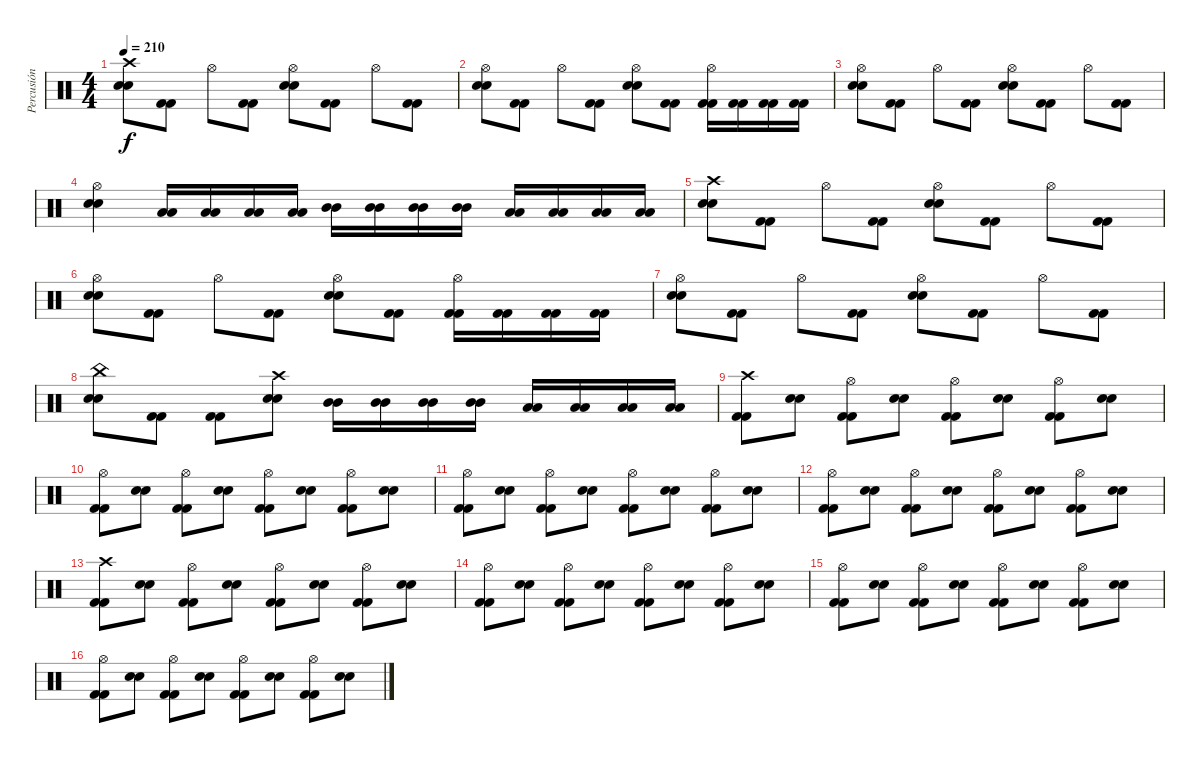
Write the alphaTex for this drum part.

\track ("Percusión" "Percusión") {instrument percussion}
\staff {score}
\articulation defaults
\ts (4 4)
\tempo 210
\clef neutral
\ks c
("Electric Snare (hit)" "Electric Snare (hit)" "Crash high (hit)").8{dy f} ("Kick (hit) 2" "Kick (hit) 2").8 "Hi-Hat (open)".8 ("Kick (hit) 2" "Kick (hit) 2").8 ("Electric Snare (hit)" "Electric Snare (hit)" "Hi-Hat (open)").8 ("Kick (hit) 2" "Kick (hit) 2").8 "Hi-Hat (open)".8 ("Kick (hit) 2" "Kick (hit) 2").8 |
("Electric Snare (hit)" "Electric Snare (hit)" "Hi-Hat (open)").8 ("Kick (hit) 2" "Kick (hit) 2").8 "Hi-Hat (open)".8 ("Kick (hit) 2" "Kick (hit) 2").8 ("Electric Snare (hit)" "Electric Snare (hit)" "Hi-Hat (open)").8 ("Kick (hit) 2" "Kick (hit) 2").8 ("Kick (hit) 2" "Kick (hit) 2" "Hi-Hat (open)").16 ("Kick (hit) 2" "Kick (hit) 2").16 ("Kick (hit) 2" "Kick (hit) 2").16 ("Kick (hit) 2" "Kick (hit) 2").16 |
("Electric Snare (hit)" "Electric Snare (hit)" "Hi-Hat (open)").8 ("Kick (hit) 2" "Kick (hit) 2").8 "Hi-Hat (open)".8 ("Kick (hit) 2" "Kick (hit) 2").8 ("Electric Snare (hit)" "Electric Snare (hit)" "Hi-Hat (open)").8 ("Kick (hit) 2" "Kick (hit) 2").8 "Hi-Hat (open)".8 ("Kick (hit) 2" "Kick (hit) 2").8 |
("Electric Snare (hit)" "Electric Snare (hit)" "Hi-Hat (open)").4 ("Low Tom (hit)" "Low Tom (hit)").16 ("Low Tom (hit)" "Low Tom (hit)").16 ("Low Tom (hit)" "Low Tom (hit)").16 ("Low Tom (hit)" "Low Tom (hit)").16 ("Mid Tom (hit)" "Mid Tom (hit)").16 ("Mid Tom (hit)" "Mid Tom (hit)").16 ("Mid Tom (hit)" "Mid Tom (hit)").16 ("Mid Tom (hit)" "Mid Tom (hit)").16 ("Low Floor Tom (hit)" "Low Floor Tom (hit)").16 ("Low Floor Tom (hit)" "Low Floor Tom (hit)").16 ("Low Floor Tom (hit)" "Low Floor Tom (hit)").16 ("Low Floor Tom (hit)" "Low Floor Tom (hit)").16 |
("Electric Snare (hit)" "Electric Snare (hit)" "Crash high (hit)").8 ("Kick (hit) 2" "Kick (hit) 2").8 "Hi-Hat (open)".8 ("Kick (hit) 2" "Kick (hit) 2").8 ("Electric Snare (hit)" "Electric Snare (hit)" "Hi-Hat (open)").8 ("Kick (hit) 2" "Kick (hit) 2").8 "Hi-Hat (open)".8 ("Kick (hit) 2" "Kick (hit) 2").8 |
("Electric Snare (hit)" "Electric Snare (hit)" "Hi-Hat (open)").8 ("Kick (hit) 2" "Kick (hit) 2").8 "Hi-Hat (open)".8 ("Kick (hit) 2" "Kick (hit) 2").8 ("Electric Snare (hit)" "Electric Snare (hit)" "Hi-Hat (open)").8 ("Kick (hit) 2" "Kick (hit) 2").8 ("Kick (hit) 2" "Kick (hit) 2" "Hi-Hat (open)").16 ("Kick (hit) 2" "Kick (hit) 2").16 ("Kick (hit) 2" "Kick (hit) 2").16 ("Kick (hit) 2" "Kick (hit) 2").16 |
("Electric Snare (hit)" "Electric Snare (hit)" "Hi-Hat (open)").8 ("Kick (hit) 2" "Kick (hit) 2").8 "Hi-Hat (open)".8 ("Kick (hit) 2" "Kick (hit) 2").8 ("Electric Snare (hit)" "Electric Snare (hit)" "Hi-Hat (open)").8 ("Kick (hit) 2" "Kick (hit) 2").8 "Hi-Hat (open)".8 ("Kick (hit) 2" "Kick (hit) 2").8 |
("Electric Snare (hit)" "Electric Snare (hit)" "China (hit)").8 ("Kick (hit) 2" "Kick (hit) 2").8 ("Kick (hit) 2" "Kick (hit) 2").8 ("Electric Snare (hit)" "Electric Snare (hit)" "Crash high (hit)").8 ("Mid Tom (hit)" "Mid Tom (hit)").16 ("Mid Tom (hit)" "Mid Tom (hit)").16 ("Mid Tom (hit)" "Mid Tom (hit)").16 ("Mid Tom (hit)" "Mid Tom (hit)").16 ("Low Tom (hit)" "Low Tom (hit)").16 ("Low Tom (hit)" "Low Tom (hit)").16 ("Low Tom (hit)" "Low Tom (hit)").16 ("Low Tom (hit)" "Low Tom (hit)").16 |
("Kick (hit) 2" "Kick (hit) 2" "Crash high (hit)").8 ("Electric Snare (hit)" "Electric Snare (hit)").8 ("Kick (hit) 2" "Kick (hit) 2" "Hi-Hat (open)").8 ("Electric Snare (hit)" "Electric Snare (hit)").8 ("Kick (hit) 2" "Kick (hit) 2" "Hi-Hat (open)").8 ("Electric Snare (hit)" "Electric Snare (hit)").8 ("Kick (hit) 2" "Kick (hit) 2" "Hi-Hat (open)").8 ("Electric Snare (hit)" "Electric Snare (hit)").8 |
("Kick (hit) 2" "Kick (hit) 2" "Hi-Hat (open)").8 ("Electric Snare (hit)" "Electric Snare (hit)").8 ("Kick (hit) 2" "Kick (hit) 2" "Hi-Hat (open)").8 ("Electric Snare (hit)" "Electric Snare (hit)").8 ("Kick (hit) 2" "Kick (hit) 2" "Hi-Hat (open)").8 ("Electric Snare (hit)" "Electric Snare (hit)").8 ("Kick (hit) 2" "Kick (hit) 2" "Hi-Hat (open)").8 ("Electric Snare (hit)" "Electric Snare (hit)").8 |
("Kick (hit) 2" "Kick (hit) 2" "Hi-Hat (open)").8 ("Electric Snare (hit)" "Electric Snare (hit)").8 ("Kick (hit) 2" "Kick (hit) 2" "Hi-Hat (open)").8 ("Electric Snare (hit)" "Electric Snare (hit)").8 ("Kick (hit) 2" "Kick (hit) 2" "Hi-Hat (open)").8 ("Electric Snare (hit)" "Electric Snare (hit)").8 ("Kick (hit) 2" "Kick (hit) 2" "Hi-Hat (open)").8 ("Electric Snare (hit)" "Electric Snare (hit)").8 |
("Kick (hit) 2" "Kick (hit) 2" "Hi-Hat (open)").8 ("Electric Snare (hit)" "Electric Snare (hit)").8 ("Kick (hit) 2" "Kick (hit) 2" "Hi-Hat (open)").8 ("Electric Snare (hit)" "Electric Snare (hit)").8 ("Kick (hit) 2" "Kick (hit) 2" "Hi-Hat (open)").8 ("Electric Snare (hit)" "Electric Snare (hit)").8 ("Kick (hit) 2" "Kick (hit) 2" "Hi-Hat (open)").8 ("Electric Snare (hit)" "Electric Snare (hit)").8 |
("Kick (hit) 2" "Kick (hit) 2" "Crash high (hit)").8 ("Electric Snare (hit)" "Electric Snare (hit)").8 ("Kick (hit) 2" "Kick (hit) 2" "Hi-Hat (open)").8 ("Electric Snare (hit)" "Electric Snare (hit)").8 ("Kick (hit) 2" "Kick (hit) 2" "Hi-Hat (open)").8 ("Electric Snare (hit)" "Electric Snare (hit)").8 ("Kick (hit) 2" "Kick (hit) 2" "Hi-Hat (open)").8 ("Electric Snare (hit)" "Electric Snare (hit)").8 |
("Kick (hit) 2" "Kick (hit) 2" "Hi-Hat (open)").8 ("Electric Snare (hit)" "Electric Snare (hit)").8 ("Kick (hit) 2" "Kick (hit) 2" "Hi-Hat (open)").8 ("Electric Snare (hit)" "Electric Snare (hit)").8 ("Kick (hit) 2" "Kick (hit) 2" "Hi-Hat (open)").8 ("Electric Snare (hit)" "Electric Snare (hit)").8 ("Kick (hit) 2" "Kick (hit) 2" "Hi-Hat (open)").8 ("Electric Snare (hit)" "Electric Snare (hit)").8 |
("Kick (hit) 2" "Kick (hit) 2" "Hi-Hat (open)").8 ("Electric Snare (hit)" "Electric Snare (hit)").8 ("Kick (hit) 2" "Kick (hit) 2" "Hi-Hat (open)").8 ("Electric Snare (hit)" "Electric Snare (hit)").8 ("Kick (hit) 2" "Kick (hit) 2" "Hi-Hat (open)").8 ("Electric Snare (hit)" "Electric Snare (hit)").8 ("Kick (hit) 2" "Kick (hit) 2" "Hi-Hat (open)").8 ("Electric Snare (hit)" "Electric Snare (hit)").8 |
("Kick (hit) 2" "Kick (hit) 2" "Hi-Hat (open)").8 ("Electric Snare (hit)" "Electric Snare (hit)").8 ("Kick (hit) 2" "Kick (hit) 2" "Hi-Hat (open)").8 ("Electric Snare (hit)" "Electric Snare (hit)").8 ("Kick (hit) 2" "Kick (hit) 2" "Hi-Hat (open)").8 ("Electric Snare (hit)" "Electric Snare (hit)").8 ("Kick (hit) 2" "Kick (hit) 2" "Hi-Hat (open)").8 ("Electric Snare (hit)" "Electric Snare (hit)").8
